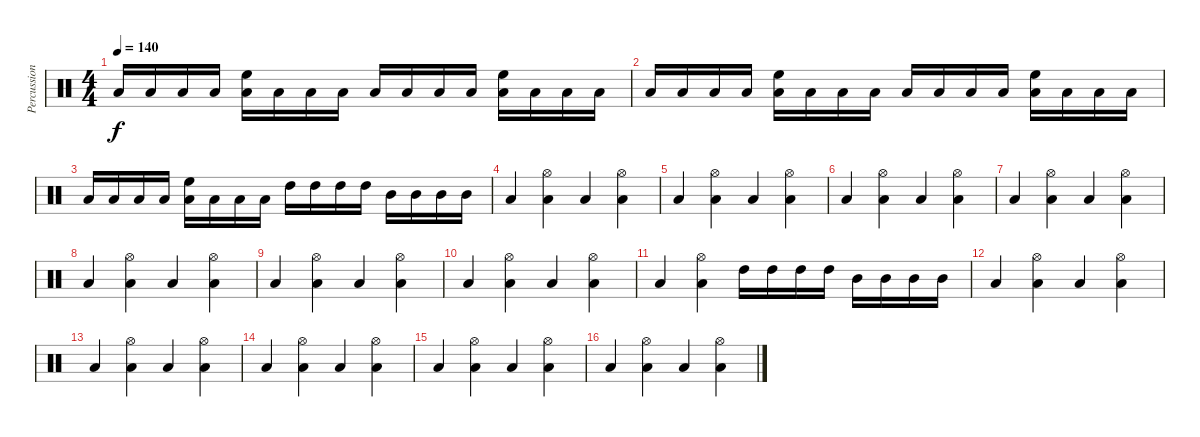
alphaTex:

\track ("Percussion" "Percussion") {instrument percussion}
\staff {score}
\articulation defaults
\ts (4 4)
\tempo 140
\clef neutral
\ks c "Low Tom (hit)".16{dy f} "Low Tom (hit)".16 "Low Tom (hit)".16 "Low Tom (hit)".16
("High Floor Tom (hit)" "Low Tom (hit)").16 "Low Tom (hit)".16 "Low Tom (hit)".16 "Low Tom (hit)".16 "Low Tom (hit)".16 "Low Tom (hit)".16 "Low Tom (hit)".16 "Low Tom (hit)".16 ("High Floor Tom (hit)" "Low Tom (hit)").16 "Low Tom (hit)".16 "Low Tom (hit)".16 "Low Tom (hit)".16 |
"Low Tom (hit)".16 "Low Tom (hit)".16 "Low Tom (hit)".16 "Low Tom (hit)".16 ("High Floor Tom (hit)" "Low Tom (hit)").16 "Low Tom (hit)".16 "Low Tom (hit)".16 "Low Tom (hit)".16 "Low Tom (hit)".16 "Low Tom (hit)".16 "Low Tom (hit)".16 "Low Tom (hit)".16 ("High Floor Tom (hit)" "Low Tom (hit)").16 "Low Tom (hit)".16 "Low Tom (hit)".16 "Low Tom (hit)".16 |
"Low Tom (hit)".16 "Low Tom (hit)".16 "Low Tom (hit)".16 "Low Tom (hit)".16 ("High Floor Tom (hit)" "Low Tom (hit)").16 "Low Tom (hit)".16 "Low Tom (hit)".16 "Low Tom (hit)".16 "High Tom (hit)".16 "High Tom (hit)".16 "High Tom (hit)".16 "High Tom (hit)".16 "Mid Tom (hit)".16 "Mid Tom (hit)".16 "Mid Tom (hit)".16 "Mid Tom (hit)".16 |
"Low Tom (hit)".4 ("Hi-Hat (open)" "Low Tom (hit)").4 "Low Tom (hit)".4 ("Hi-Hat (open)" "Low Tom (hit)").4 |
"Low Tom (hit)".4 ("Hi-Hat (open)" "Low Tom (hit)").4 "Low Tom (hit)".4 ("Hi-Hat (open)" "Low Tom (hit)").4 |
"Low Tom (hit)".4 ("Hi-Hat (open)" "Low Tom (hit)").4 "Low Tom (hit)".4 ("Hi-Hat (open)" "Low Tom (hit)").4 |
"Low Tom (hit)".4 ("Hi-Hat (open)" "Low Tom (hit)").4 "Low Tom (hit)".4 ("Hi-Hat (open)" "Low Tom (hit)").4 |
"Low Tom (hit)".4 ("Hi-Hat (open)" "Low Tom (hit)").4 "Low Tom (hit)".4 ("Hi-Hat (open)" "Low Tom (hit)").4 |
"Low Tom (hit)".4 ("Hi-Hat (open)" "Low Tom (hit)").4 "Low Tom (hit)".4 ("Hi-Hat (open)" "Low Tom (hit)").4 |
"Low Tom (hit)".4 ("Hi-Hat (open)" "Low Tom (hit)").4 "Low Tom (hit)".4 ("Hi-Hat (open)" "Low Tom (hit)").4 |
"Low Tom (hit)".4 ("Hi-Hat (open)" "Low Tom (hit)").4 "High Tom (hit)".16 "High Tom (hit)".16 "High Tom (hit)".16 "High Tom (hit)".16 "Mid Tom (hit)".16 "Mid Tom (hit)".16 "Mid Tom (hit)".16 "Mid Tom (hit)".16 |
"Low Tom (hit)".4 ("Hi-Hat (open)" "Low Tom (hit)").4 "Low Tom (hit)".4 ("Hi-Hat (open)" "Low Tom (hit)").4 |
"Low Tom (hit)".4 ("Hi-Hat (open)" "Low Tom (hit)").4 "Low Tom (hit)".4 ("Hi-Hat (open)" "Low Tom (hit)").4 |
"Low Tom (hit)".4 ("Hi-Hat (open)" "Low Tom (hit)").4 "Low Tom (hit)".4 ("Hi-Hat (open)" "Low Tom (hit)").4 |
"Low Tom (hit)".4 ("Hi-Hat (open)" "Low Tom (hit)").4 "Low Tom (hit)".4 ("Hi-Hat (open)" "Low Tom (hit)").4 |
"Low Tom (hit)".4 ("Hi-Hat (open)" "Low Tom (hit)").4 "Low Tom (hit)".4 ("Hi-Hat (open)" "Low Tom (hit)").4
